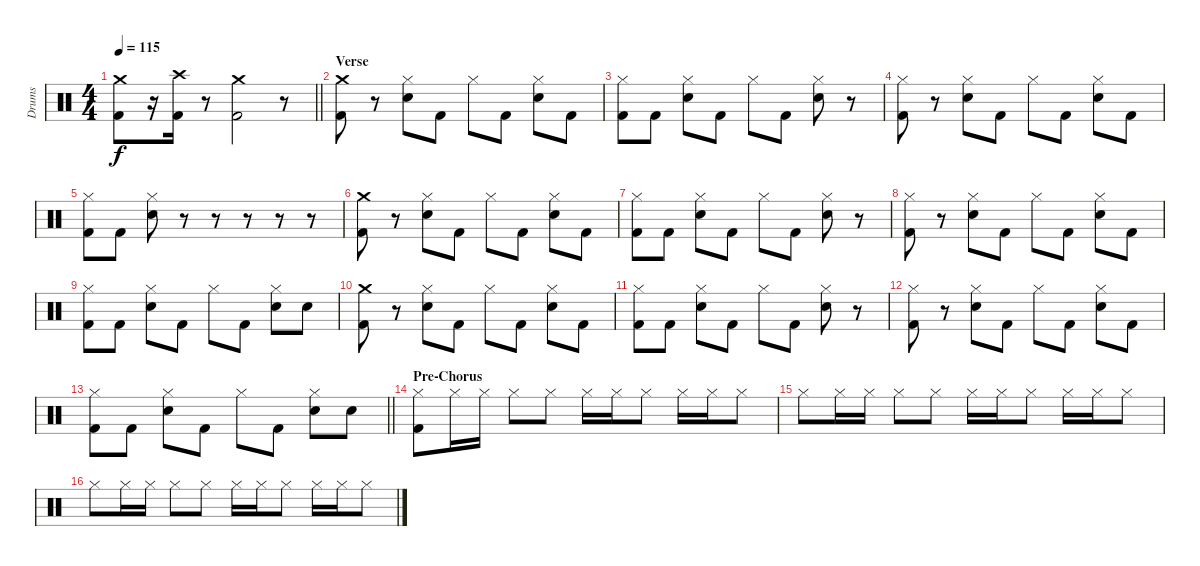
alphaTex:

\track ("Drums" "Drums") {instrument percussion}
\staff {score}
\articulation defaults
\ts (4 4)
\tempo 115
\clef neutral
\barLineRight lightlight
\ks c
("Crash medium (hit)" "Kick (hit) 2").8{dy f} r.16 ("Crash high (hit)" "Kick (hit) 2").16 r.8 ("Crash medium (hit)" "Kick (hit) 2").2 r.8 |
\section ("" "Verse")
("Crash medium (hit)" "Kick (hit) 2").8 r.8 ("Hi-Hat (closed)" "Electric Snare (hit)").8 "Kick (hit) 2".8 "Hi-Hat (closed)".8 "Kick (hit) 2".8 ("Hi-Hat (closed)" "Electric Snare (hit)").8 "Kick (hit) 2".8 |
("Hi-Hat (closed)" "Kick (hit) 2").8 "Kick (hit) 2".8 ("Hi-Hat (closed)" "Electric Snare (hit)").8 "Kick (hit) 2".8 "Hi-Hat (closed)".8 "Kick (hit) 2".8 ("Hi-Hat (closed)" "Electric Snare (hit)").8 r.8 |
("Hi-Hat (closed)" "Kick (hit) 2").8 r.8 ("Hi-Hat (closed)" "Electric Snare (hit)").8 "Kick (hit) 2".8 "Hi-Hat (closed)".8 "Kick (hit) 2".8 ("Hi-Hat (closed)" "Electric Snare (hit)").8 "Kick (hit) 2".8 |
("Hi-Hat (closed)" "Kick (hit) 2").8 "Kick (hit) 2".8 ("Hi-Hat (closed)" "Electric Snare (hit)").8 r.8 r.8 r.8 r.8 r.8 |
("Crash medium (hit)" "Kick (hit) 2").8 r.8 ("Hi-Hat (closed)" "Electric Snare (hit)").8 "Kick (hit) 2".8 "Hi-Hat (closed)".8 "Kick (hit) 2".8 ("Hi-Hat (closed)" "Electric Snare (hit)").8 "Kick (hit) 2".8 |
("Hi-Hat (closed)" "Kick (hit) 2").8 "Kick (hit) 2".8 ("Hi-Hat (closed)" "Electric Snare (hit)").8 "Kick (hit) 2".8 "Hi-Hat (closed)".8 "Kick (hit) 2".8 ("Hi-Hat (closed)" "Electric Snare (hit)").8 r.8 |
("Hi-Hat (closed)" "Kick (hit) 2").8 r.8 ("Hi-Hat (closed)" "Electric Snare (hit)").8 "Kick (hit) 2".8 "Hi-Hat (closed)".8 "Kick (hit) 2".8 ("Hi-Hat (closed)" "Electric Snare (hit)").8 "Kick (hit) 2".8 |
("Hi-Hat (closed)" "Kick (hit) 2").8 "Kick (hit) 2".8 ("Hi-Hat (closed)" "Electric Snare (hit)").8 "Kick (hit) 2".8 "Hi-Hat (closed)".8 "Kick (hit) 2".8 ("Hi-Hat (closed)" "Electric Snare (hit)").8 "Electric Snare (hit)".8 |
("Crash medium (hit)" "Kick (hit) 2").8 r.8 ("Hi-Hat (closed)" "Electric Snare (hit)").8 "Kick (hit) 2".8 "Hi-Hat (closed)".8 "Kick (hit) 2".8 ("Hi-Hat (closed)" "Electric Snare (hit)").8 "Kick (hit) 2".8 |
("Hi-Hat (closed)" "Kick (hit) 2").8 "Kick (hit) 2".8 ("Hi-Hat (closed)" "Electric Snare (hit)").8 "Kick (hit) 2".8 "Hi-Hat (closed)".8 "Kick (hit) 2".8 ("Hi-Hat (closed)" "Electric Snare (hit)").8 r.8 |
("Hi-Hat (closed)" "Kick (hit) 2").8 r.8 ("Hi-Hat (closed)" "Electric Snare (hit)").8 "Kick (hit) 2".8 "Hi-Hat (closed)".8 "Kick (hit) 2".8 ("Hi-Hat (closed)" "Electric Snare (hit)").8 "Kick (hit) 2".8 |
\barLineRight lightlight
("Hi-Hat (closed)" "Kick (hit) 2").8 "Kick (hit) 2".8 ("Hi-Hat (closed)" "Electric Snare (hit)").8 "Kick (hit) 2".8 "Hi-Hat (closed)".8 "Kick (hit) 2".8 ("Hi-Hat (closed)" "Electric Snare (hit)").8 "Electric Snare (hit)".8 |
\section ("" "Pre-Chorus")
("Hi-Hat (closed)" "Kick (hit) 2").8 "Hi-Hat (closed)".16 "Hi-Hat (closed)".16 "Hi-Hat (closed)".8 "Hi-Hat (closed)".8 "Hi-Hat (closed)".16 "Hi-Hat (closed)".16 "Hi-Hat (closed)".8 "Hi-Hat (closed)".16 "Hi-Hat (closed)".16 "Hi-Hat (closed)".8 |
"Hi-Hat (closed)".8 "Hi-Hat (closed)".16 "Hi-Hat (closed)".16 "Hi-Hat (closed)".8 "Hi-Hat (closed)".8 "Hi-Hat (closed)".16 "Hi-Hat (closed)".16 "Hi-Hat (closed)".8 "Hi-Hat (closed)".16 "Hi-Hat (closed)".16 "Hi-Hat (closed)".8 |
"Hi-Hat (closed)".8 "Hi-Hat (closed)".16 "Hi-Hat (closed)".16 "Hi-Hat (closed)".8 "Hi-Hat (closed)".8 "Hi-Hat (closed)".16 "Hi-Hat (closed)".16 "Hi-Hat (closed)".8 "Hi-Hat (closed)".16 "Hi-Hat (closed)".16 "Hi-Hat (closed)".8
